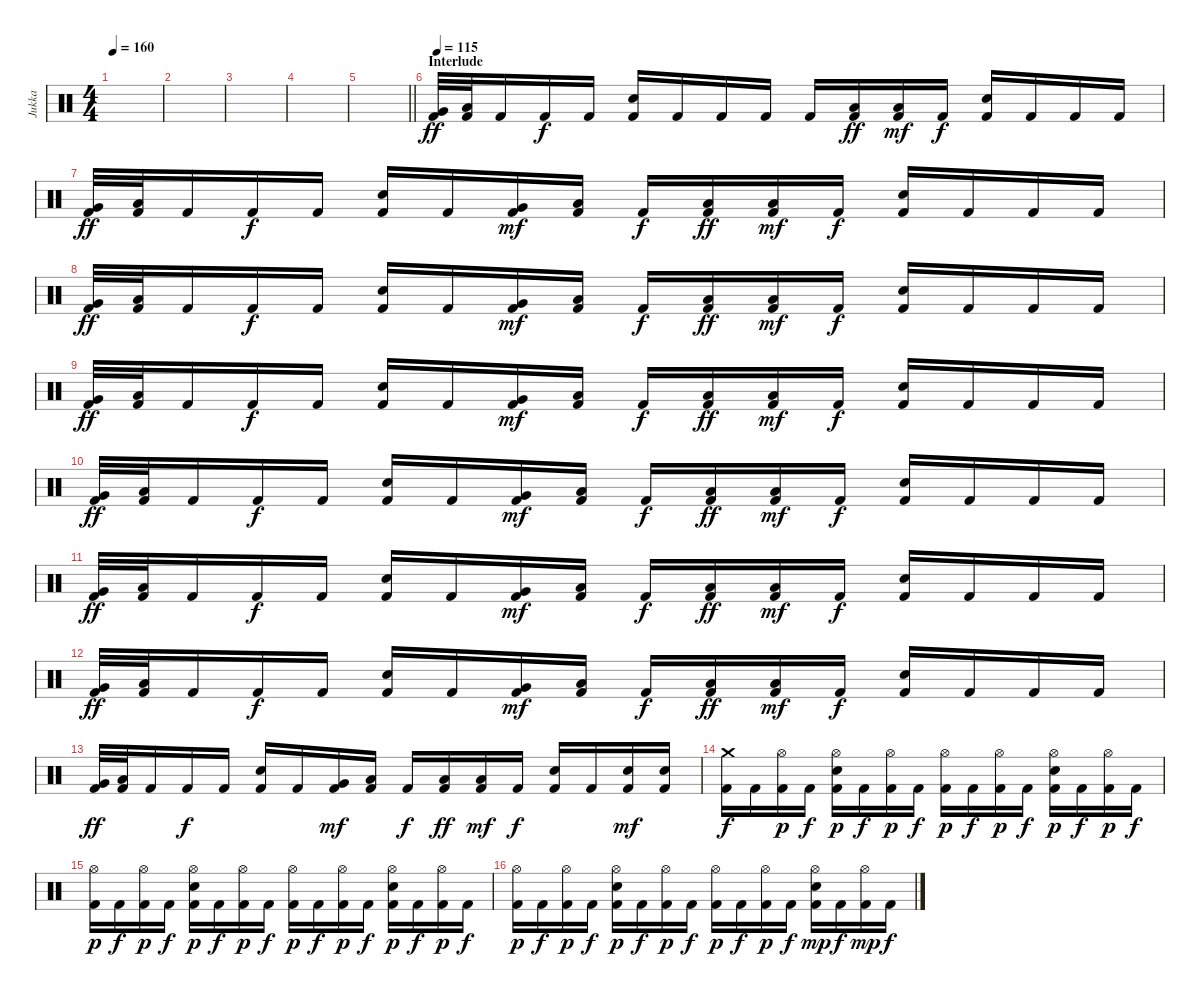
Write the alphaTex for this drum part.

\track ("Jukka" "Jukka") {instrument percussion}
\staff {score}
\articulation defaults
\ts (4 4)
\tempo 160
\clef neutral
\ks c
|
|
|
|
\barLineRight lightlight
|
\section ("" "Interlude")
\tempo 115
("Very Low Tom (hit)" "Kick (hit) 2").32{dy ff} ("Low Floor Tom (hit)" "Kick (hit) 2").32 "Kick (hit) 2".16 "Kick (hit) 2".16{dy f} "Kick (hit) 2".16 ("Snare (hit) 2" "Kick (hit) 2").16 "Kick (hit) 2".16 "Kick (hit) 2".16 "Kick (hit) 2".16 "Kick (hit) 2".16 ("Low Floor Tom (hit)" "Kick (hit) 2").16{dy ff} ("Low Floor Tom (hit)" "Kick (hit) 2").16{dy mf} "Kick (hit) 2".16{dy f} ("Snare (hit) 2" "Kick (hit) 2").16 "Kick (hit) 2".16 "Kick (hit) 2".16 "Kick (hit) 2".16 |
("Very Low Tom (hit)" "Kick (hit) 2").32{dy ff} ("Low Floor Tom (hit)" "Kick (hit) 2").32 "Kick (hit) 2".16 "Kick (hit) 2".16{dy f} "Kick (hit) 2".16 ("Snare (hit) 2" "Kick (hit) 2").16 "Kick (hit) 2".16 ("Very Low Tom (hit)" "Kick (hit) 2").16{dy mf} ("Low Floor Tom (hit)" "Kick (hit) 2").16 "Kick (hit) 2".16{dy f} ("Low Floor Tom (hit)" "Kick (hit) 2").16{dy ff} ("Low Floor Tom (hit)" "Kick (hit) 2").16{dy mf} "Kick (hit) 2".16{dy f} ("Snare (hit) 2" "Kick (hit) 2").16 "Kick (hit) 2".16 "Kick (hit) 2".16 "Kick (hit) 2".16 |
("Very Low Tom (hit)" "Kick (hit) 2").32{dy ff} ("Low Floor Tom (hit)" "Kick (hit) 2").32 "Kick (hit) 2".16 "Kick (hit) 2".16{dy f} "Kick (hit) 2".16 ("Snare (hit) 2" "Kick (hit) 2").16 "Kick (hit) 2".16 ("Very Low Tom (hit)" "Kick (hit) 2").16{dy mf} ("Low Floor Tom (hit)" "Kick (hit) 2").16 "Kick (hit) 2".16{dy f} ("Low Floor Tom (hit)" "Kick (hit) 2").16{dy ff} ("Low Floor Tom (hit)" "Kick (hit) 2").16{dy mf} "Kick (hit) 2".16{dy f} ("Snare (hit) 2" "Kick (hit) 2").16 "Kick (hit) 2".16 "Kick (hit) 2".16 "Kick (hit) 2".16 |
("Very Low Tom (hit)" "Kick (hit) 2").32{dy ff} ("Low Floor Tom (hit)" "Kick (hit) 2").32 "Kick (hit) 2".16 "Kick (hit) 2".16{dy f} "Kick (hit) 2".16 ("Snare (hit) 2" "Kick (hit) 2").16 "Kick (hit) 2".16 ("Very Low Tom (hit)" "Kick (hit) 2").16{dy mf} ("Low Floor Tom (hit)" "Kick (hit) 2").16 "Kick (hit) 2".16{dy f} ("Low Floor Tom (hit)" "Kick (hit) 2").16{dy ff} ("Low Floor Tom (hit)" "Kick (hit) 2").16{dy mf} "Kick (hit) 2".16{dy f} ("Snare (hit) 2" "Kick (hit) 2").16 "Kick (hit) 2".16 "Kick (hit) 2".16 "Kick (hit) 2".16 |
("Very Low Tom (hit)" "Kick (hit) 2").32{dy ff} ("Low Floor Tom (hit)" "Kick (hit) 2").32 "Kick (hit) 2".16 "Kick (hit) 2".16{dy f} "Kick (hit) 2".16 ("Snare (hit) 2" "Kick (hit) 2").16 "Kick (hit) 2".16 ("Very Low Tom (hit)" "Kick (hit) 2").16{dy mf} ("Low Floor Tom (hit)" "Kick (hit) 2").16 "Kick (hit) 2".16{dy f} ("Low Floor Tom (hit)" "Kick (hit) 2").16{dy ff} ("Low Floor Tom (hit)" "Kick (hit) 2").16{dy mf} "Kick (hit) 2".16{dy f} ("Snare (hit) 2" "Kick (hit) 2").16 "Kick (hit) 2".16 "Kick (hit) 2".16 "Kick (hit) 2".16 |
("Very Low Tom (hit)" "Kick (hit) 2").32{dy ff} ("Low Floor Tom (hit)" "Kick (hit) 2").32 "Kick (hit) 2".16 "Kick (hit) 2".16{dy f} "Kick (hit) 2".16 ("Snare (hit) 2" "Kick (hit) 2").16 "Kick (hit) 2".16 ("Very Low Tom (hit)" "Kick (hit) 2").16{dy mf} ("Low Floor Tom (hit)" "Kick (hit) 2").16 "Kick (hit) 2".16{dy f} ("Low Floor Tom (hit)" "Kick (hit) 2").16{dy ff} ("Low Floor Tom (hit)" "Kick (hit) 2").16{dy mf} "Kick (hit) 2".16{dy f} ("Snare (hit) 2" "Kick (hit) 2").16 "Kick (hit) 2".16 "Kick (hit) 2".16 "Kick (hit) 2".16 |
("Very Low Tom (hit)" "Kick (hit) 2").32{dy ff} ("Low Floor Tom (hit)" "Kick (hit) 2").32 "Kick (hit) 2".16 "Kick (hit) 2".16{dy f} "Kick (hit) 2".16 ("Snare (hit) 2" "Kick (hit) 2").16 "Kick (hit) 2".16 ("Very Low Tom (hit)" "Kick (hit) 2").16{dy mf} ("Low Floor Tom (hit)" "Kick (hit) 2").16 "Kick (hit) 2".16{dy f} ("Low Floor Tom (hit)" "Kick (hit) 2").16{dy ff} ("Low Floor Tom (hit)" "Kick (hit) 2").16{dy mf} "Kick (hit) 2".16{dy f} ("Snare (hit) 2" "Kick (hit) 2").16 "Kick (hit) 2".16 "Kick (hit) 2".16 "Kick (hit) 2".16 |
("Very Low Tom (hit)" "Kick (hit) 2").32{dy ff} ("Low Floor Tom (hit)" "Kick (hit) 2").32 "Kick (hit) 2".16 "Kick (hit) 2".16{dy f} "Kick (hit) 2".16 ("Snare (hit) 2" "Kick (hit) 2").16 "Kick (hit) 2".16 ("Very Low Tom (hit)" "Kick (hit) 2").16{dy mf} ("Low Floor Tom (hit)" "Kick (hit) 2").16 "Kick (hit) 2".16{dy f} ("Low Floor Tom (hit)" "Kick (hit) 2").16{dy ff} ("Low Floor Tom (hit)" "Kick (hit) 2").16{dy mf} "Kick (hit) 2".16{dy f} ("Snare (hit) 2" "Kick (hit) 2").16 "Kick (hit) 2".16 ("Snare (hit) 2" "Kick (hit) 2").16{dy mf} ("Snare (hit) 2" "Kick (hit) 2").16 |
("Crash medium (hit)" "Kick (hit) 2").16{dy f} "Kick (hit) 2".16 ("Hi-Hat (open)" "Kick (hit) 2").16{dy p} "Kick (hit) 2".16{dy f} ("Hi-Hat (open)" "Snare (hit) 2" "Kick (hit) 2").16{dy p} "Kick (hit) 2".16{dy f} ("Hi-Hat (open)" "Kick (hit) 2").16{dy p} "Kick (hit) 2".16{dy f} ("Hi-Hat (open)" "Kick (hit) 2").16{dy p} "Kick (hit) 2".16{dy f} ("Hi-Hat (open)" "Kick (hit) 2").16{dy p} "Kick (hit) 2".16{dy f} ("Hi-Hat (open)" "Snare (hit) 2" "Kick (hit) 2").16{dy p} "Kick (hit) 2".16{dy f} ("Hi-Hat (open)" "Kick (hit) 2").16{dy p} "Kick (hit) 2".16{dy f} |
("Hi-Hat (open)" "Kick (hit) 2").16{dy p} "Kick (hit) 2".16{dy f} ("Hi-Hat (open)" "Kick (hit) 2").16{dy p} "Kick (hit) 2".16{dy f} ("Hi-Hat (open)" "Snare (hit) 2" "Kick (hit) 2").16{dy p} "Kick (hit) 2".16{dy f} ("Hi-Hat (open)" "Kick (hit) 2").16{dy p} "Kick (hit) 2".16{dy f} ("Hi-Hat (open)" "Kick (hit) 2").16{dy p} "Kick (hit) 2".16{dy f} ("Hi-Hat (open)" "Kick (hit) 2").16{dy p} "Kick (hit) 2".16{dy f} ("Hi-Hat (open)" "Snare (hit) 2" "Kick (hit) 2").16{dy p} "Kick (hit) 2".16{dy f} ("Hi-Hat (open)" "Kick (hit) 2").16{dy p} "Kick (hit) 2".16{dy f} |
("Hi-Hat (open)" "Kick (hit) 2").16{dy p} "Kick (hit) 2".16{dy f} ("Hi-Hat (open)" "Kick (hit) 2").16{dy p} "Kick (hit) 2".16{dy f} ("Hi-Hat (open)" "Snare (hit) 2" "Kick (hit) 2").16{dy p} "Kick (hit) 2".16{dy f} ("Hi-Hat (open)" "Kick (hit) 2").16{dy p} "Kick (hit) 2".16{dy f} ("Hi-Hat (open)" "Kick (hit) 2").16{dy p} "Kick (hit) 2".16{dy f} ("Hi-Hat (open)" "Kick (hit) 2").16{dy p} "Kick (hit) 2".16{dy f} ("Hi-Hat (open)" "Snare (hit) 2" "Kick (hit) 2").16{dy mp} "Kick (hit) 2".16{dy f} ("Hi-Hat (open)" "Kick (hit) 2").16{dy mp} "Kick (hit) 2".16{dy f}
